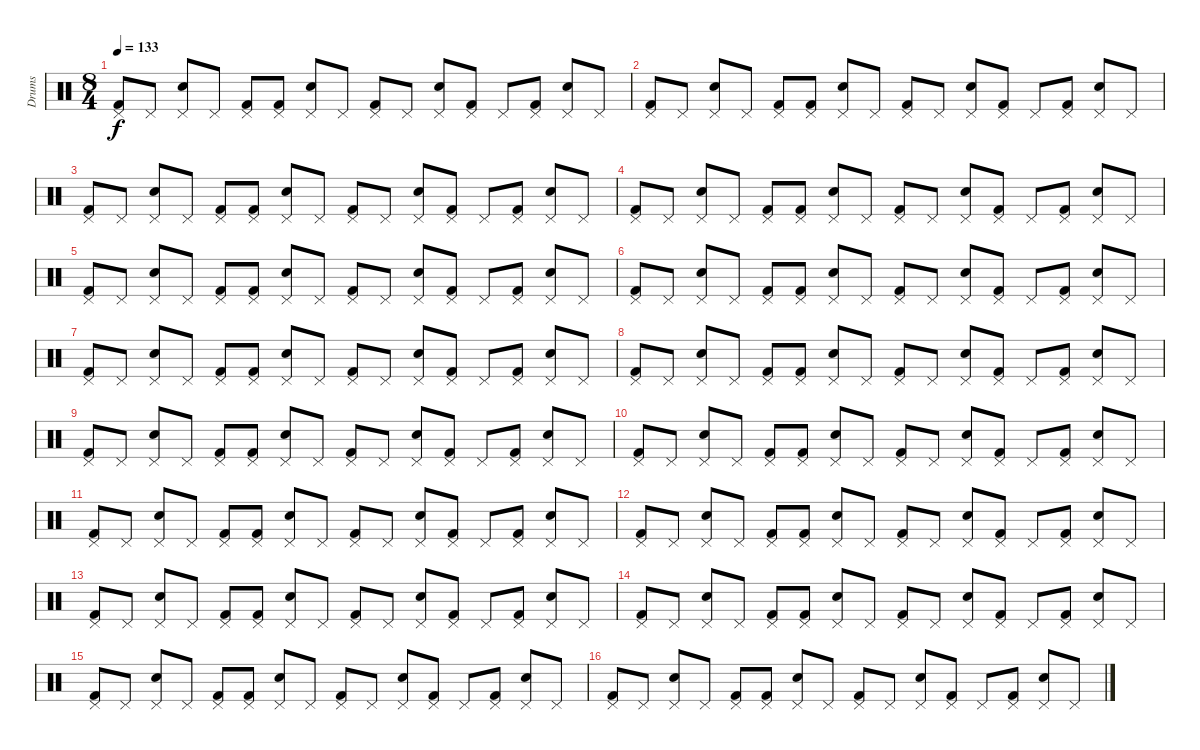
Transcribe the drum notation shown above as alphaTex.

\track ("Drums" "Drums") {instrument percussion}
\staff {score}
\articulation defaults
\ts (8 4)
\tempo 133
\clef neutral
\ks c
("Pedal Hi-Hat (hit)" "Kick (hit) 2").8{dy f} "Pedal Hi-Hat (hit)".8 ("Pedal Hi-Hat (hit)" "Snare (hit) 2").8 "Pedal Hi-Hat (hit)".8 ("Pedal Hi-Hat (hit)" "Kick (hit) 2").8 ("Pedal Hi-Hat (hit)" "Kick (hit) 2").8 ("Pedal Hi-Hat (hit)" "Snare (hit) 2").8 "Pedal Hi-Hat (hit)".8 ("Pedal Hi-Hat (hit)" "Kick (hit) 2").8 "Pedal Hi-Hat (hit)".8 ("Pedal Hi-Hat (hit)" "Snare (hit) 2").8 ("Pedal Hi-Hat (hit)" "Kick (hit) 2").8 "Pedal Hi-Hat (hit)".8 ("Pedal Hi-Hat (hit)" "Kick (hit) 2").8 ("Pedal Hi-Hat (hit)" "Snare (hit) 2").8 "Pedal Hi-Hat (hit)".8 |
("Pedal Hi-Hat (hit)" "Kick (hit) 2").8 "Pedal Hi-Hat (hit)".8 ("Pedal Hi-Hat (hit)" "Snare (hit) 2").8 "Pedal Hi-Hat (hit)".8 ("Pedal Hi-Hat (hit)" "Kick (hit) 2").8 ("Pedal Hi-Hat (hit)" "Kick (hit) 2").8 ("Pedal Hi-Hat (hit)" "Snare (hit) 2").8 "Pedal Hi-Hat (hit)".8 ("Pedal Hi-Hat (hit)" "Kick (hit) 2").8 "Pedal Hi-Hat (hit)".8 ("Pedal Hi-Hat (hit)" "Snare (hit) 2").8 ("Pedal Hi-Hat (hit)" "Kick (hit) 2").8 "Pedal Hi-Hat (hit)".8 ("Pedal Hi-Hat (hit)" "Kick (hit) 2").8 ("Pedal Hi-Hat (hit)" "Snare (hit) 2").8 "Pedal Hi-Hat (hit)".8 |
("Pedal Hi-Hat (hit)" "Kick (hit) 2").8 "Pedal Hi-Hat (hit)".8 ("Pedal Hi-Hat (hit)" "Snare (hit) 2").8 "Pedal Hi-Hat (hit)".8 ("Pedal Hi-Hat (hit)" "Kick (hit) 2").8 ("Pedal Hi-Hat (hit)" "Kick (hit) 2").8 ("Pedal Hi-Hat (hit)" "Snare (hit) 2").8 "Pedal Hi-Hat (hit)".8 ("Pedal Hi-Hat (hit)" "Kick (hit) 2").8 "Pedal Hi-Hat (hit)".8 ("Pedal Hi-Hat (hit)" "Snare (hit) 2").8 ("Pedal Hi-Hat (hit)" "Kick (hit) 2").8 "Pedal Hi-Hat (hit)".8 ("Pedal Hi-Hat (hit)" "Kick (hit) 2").8 ("Pedal Hi-Hat (hit)" "Snare (hit) 2").8 "Pedal Hi-Hat (hit)".8 |
("Pedal Hi-Hat (hit)" "Kick (hit) 2").8 "Pedal Hi-Hat (hit)".8 ("Pedal Hi-Hat (hit)" "Snare (hit) 2").8 "Pedal Hi-Hat (hit)".8 ("Pedal Hi-Hat (hit)" "Kick (hit) 2").8 ("Pedal Hi-Hat (hit)" "Kick (hit) 2").8 ("Pedal Hi-Hat (hit)" "Snare (hit) 2").8 "Pedal Hi-Hat (hit)".8 ("Pedal Hi-Hat (hit)" "Kick (hit) 2").8 "Pedal Hi-Hat (hit)".8 ("Pedal Hi-Hat (hit)" "Snare (hit) 2").8 ("Pedal Hi-Hat (hit)" "Kick (hit) 2").8 "Pedal Hi-Hat (hit)".8 ("Pedal Hi-Hat (hit)" "Kick (hit) 2").8 ("Pedal Hi-Hat (hit)" "Snare (hit) 2").8 "Pedal Hi-Hat (hit)".8 |
("Pedal Hi-Hat (hit)" "Kick (hit) 2").8 "Pedal Hi-Hat (hit)".8 ("Pedal Hi-Hat (hit)" "Snare (hit) 2").8 "Pedal Hi-Hat (hit)".8 ("Pedal Hi-Hat (hit)" "Kick (hit) 2").8 ("Pedal Hi-Hat (hit)" "Kick (hit) 2").8 ("Pedal Hi-Hat (hit)" "Snare (hit) 2").8 "Pedal Hi-Hat (hit)".8 ("Pedal Hi-Hat (hit)" "Kick (hit) 2").8 "Pedal Hi-Hat (hit)".8 ("Pedal Hi-Hat (hit)" "Snare (hit) 2").8 ("Pedal Hi-Hat (hit)" "Kick (hit) 2").8 "Pedal Hi-Hat (hit)".8 ("Pedal Hi-Hat (hit)" "Kick (hit) 2").8 ("Pedal Hi-Hat (hit)" "Snare (hit) 2").8 "Pedal Hi-Hat (hit)".8 |
("Pedal Hi-Hat (hit)" "Kick (hit) 2").8 "Pedal Hi-Hat (hit)".8 ("Pedal Hi-Hat (hit)" "Snare (hit) 2").8 "Pedal Hi-Hat (hit)".8 ("Pedal Hi-Hat (hit)" "Kick (hit) 2").8 ("Pedal Hi-Hat (hit)" "Kick (hit) 2").8 ("Pedal Hi-Hat (hit)" "Snare (hit) 2").8 "Pedal Hi-Hat (hit)".8 ("Pedal Hi-Hat (hit)" "Kick (hit) 2").8 "Pedal Hi-Hat (hit)".8 ("Pedal Hi-Hat (hit)" "Snare (hit) 2").8 ("Pedal Hi-Hat (hit)" "Kick (hit) 2").8 "Pedal Hi-Hat (hit)".8 ("Pedal Hi-Hat (hit)" "Kick (hit) 2").8 ("Pedal Hi-Hat (hit)" "Snare (hit) 2").8 "Pedal Hi-Hat (hit)".8 |
("Pedal Hi-Hat (hit)" "Kick (hit) 2").8 "Pedal Hi-Hat (hit)".8 ("Pedal Hi-Hat (hit)" "Snare (hit) 2").8 "Pedal Hi-Hat (hit)".8 ("Pedal Hi-Hat (hit)" "Kick (hit) 2").8 ("Pedal Hi-Hat (hit)" "Kick (hit) 2").8 ("Pedal Hi-Hat (hit)" "Snare (hit) 2").8 "Pedal Hi-Hat (hit)".8 ("Pedal Hi-Hat (hit)" "Kick (hit) 2").8 "Pedal Hi-Hat (hit)".8 ("Pedal Hi-Hat (hit)" "Snare (hit) 2").8 ("Pedal Hi-Hat (hit)" "Kick (hit) 2").8 "Pedal Hi-Hat (hit)".8 ("Pedal Hi-Hat (hit)" "Kick (hit) 2").8 ("Pedal Hi-Hat (hit)" "Snare (hit) 2").8 "Pedal Hi-Hat (hit)".8 |
("Pedal Hi-Hat (hit)" "Kick (hit) 2").8 "Pedal Hi-Hat (hit)".8 ("Pedal Hi-Hat (hit)" "Snare (hit) 2").8 "Pedal Hi-Hat (hit)".8 ("Pedal Hi-Hat (hit)" "Kick (hit) 2").8 ("Pedal Hi-Hat (hit)" "Kick (hit) 2").8 ("Pedal Hi-Hat (hit)" "Snare (hit) 2").8 "Pedal Hi-Hat (hit)".8 ("Pedal Hi-Hat (hit)" "Kick (hit) 2").8 "Pedal Hi-Hat (hit)".8 ("Pedal Hi-Hat (hit)" "Snare (hit) 2").8 ("Pedal Hi-Hat (hit)" "Kick (hit) 2").8 "Pedal Hi-Hat (hit)".8 ("Pedal Hi-Hat (hit)" "Kick (hit) 2").8 ("Pedal Hi-Hat (hit)" "Snare (hit) 2").8 "Pedal Hi-Hat (hit)".8 |
("Pedal Hi-Hat (hit)" "Kick (hit) 2").8 "Pedal Hi-Hat (hit)".8 ("Pedal Hi-Hat (hit)" "Snare (hit) 2").8 "Pedal Hi-Hat (hit)".8 ("Pedal Hi-Hat (hit)" "Kick (hit) 2").8 ("Pedal Hi-Hat (hit)" "Kick (hit) 2").8 ("Pedal Hi-Hat (hit)" "Snare (hit) 2").8 "Pedal Hi-Hat (hit)".8 ("Pedal Hi-Hat (hit)" "Kick (hit) 2").8 "Pedal Hi-Hat (hit)".8 ("Pedal Hi-Hat (hit)" "Snare (hit) 2").8 ("Pedal Hi-Hat (hit)" "Kick (hit) 2").8 "Pedal Hi-Hat (hit)".8 ("Pedal Hi-Hat (hit)" "Kick (hit) 2").8 ("Pedal Hi-Hat (hit)" "Snare (hit) 2").8 "Pedal Hi-Hat (hit)".8 |
("Pedal Hi-Hat (hit)" "Kick (hit) 2").8 "Pedal Hi-Hat (hit)".8 ("Pedal Hi-Hat (hit)" "Snare (hit) 2").8 "Pedal Hi-Hat (hit)".8 ("Pedal Hi-Hat (hit)" "Kick (hit) 2").8 ("Pedal Hi-Hat (hit)" "Kick (hit) 2").8 ("Pedal Hi-Hat (hit)" "Snare (hit) 2").8 "Pedal Hi-Hat (hit)".8 ("Pedal Hi-Hat (hit)" "Kick (hit) 2").8 "Pedal Hi-Hat (hit)".8 ("Pedal Hi-Hat (hit)" "Snare (hit) 2").8 ("Pedal Hi-Hat (hit)" "Kick (hit) 2").8 "Pedal Hi-Hat (hit)".8 ("Pedal Hi-Hat (hit)" "Kick (hit) 2").8 ("Pedal Hi-Hat (hit)" "Snare (hit) 2").8 "Pedal Hi-Hat (hit)".8 |
("Pedal Hi-Hat (hit)" "Kick (hit) 2").8 "Pedal Hi-Hat (hit)".8 ("Pedal Hi-Hat (hit)" "Snare (hit) 2").8 "Pedal Hi-Hat (hit)".8 ("Pedal Hi-Hat (hit)" "Kick (hit) 2").8 ("Pedal Hi-Hat (hit)" "Kick (hit) 2").8 ("Pedal Hi-Hat (hit)" "Snare (hit) 2").8 "Pedal Hi-Hat (hit)".8 ("Pedal Hi-Hat (hit)" "Kick (hit) 2").8 "Pedal Hi-Hat (hit)".8 ("Pedal Hi-Hat (hit)" "Snare (hit) 2").8 ("Pedal Hi-Hat (hit)" "Kick (hit) 2").8 "Pedal Hi-Hat (hit)".8 ("Pedal Hi-Hat (hit)" "Kick (hit) 2").8 ("Pedal Hi-Hat (hit)" "Snare (hit) 2").8 "Pedal Hi-Hat (hit)".8 |
("Pedal Hi-Hat (hit)" "Kick (hit) 2").8 "Pedal Hi-Hat (hit)".8 ("Pedal Hi-Hat (hit)" "Snare (hit) 2").8 "Pedal Hi-Hat (hit)".8 ("Pedal Hi-Hat (hit)" "Kick (hit) 2").8 ("Pedal Hi-Hat (hit)" "Kick (hit) 2").8 ("Pedal Hi-Hat (hit)" "Snare (hit) 2").8 "Pedal Hi-Hat (hit)".8 ("Pedal Hi-Hat (hit)" "Kick (hit) 2").8 "Pedal Hi-Hat (hit)".8 ("Pedal Hi-Hat (hit)" "Snare (hit) 2").8 ("Pedal Hi-Hat (hit)" "Kick (hit) 2").8 "Pedal Hi-Hat (hit)".8 ("Pedal Hi-Hat (hit)" "Kick (hit) 2").8 ("Pedal Hi-Hat (hit)" "Snare (hit) 2").8 "Pedal Hi-Hat (hit)".8 |
("Pedal Hi-Hat (hit)" "Kick (hit) 2").8 "Pedal Hi-Hat (hit)".8 ("Pedal Hi-Hat (hit)" "Snare (hit) 2").8 "Pedal Hi-Hat (hit)".8 ("Pedal Hi-Hat (hit)" "Kick (hit) 2").8 ("Pedal Hi-Hat (hit)" "Kick (hit) 2").8 ("Pedal Hi-Hat (hit)" "Snare (hit) 2").8 "Pedal Hi-Hat (hit)".8 ("Pedal Hi-Hat (hit)" "Kick (hit) 2").8 "Pedal Hi-Hat (hit)".8 ("Pedal Hi-Hat (hit)" "Snare (hit) 2").8 ("Pedal Hi-Hat (hit)" "Kick (hit) 2").8 "Pedal Hi-Hat (hit)".8 ("Pedal Hi-Hat (hit)" "Kick (hit) 2").8 ("Pedal Hi-Hat (hit)" "Snare (hit) 2").8 "Pedal Hi-Hat (hit)".8 |
("Pedal Hi-Hat (hit)" "Kick (hit) 2").8 "Pedal Hi-Hat (hit)".8 ("Pedal Hi-Hat (hit)" "Snare (hit) 2").8 "Pedal Hi-Hat (hit)".8 ("Pedal Hi-Hat (hit)" "Kick (hit) 2").8 ("Pedal Hi-Hat (hit)" "Kick (hit) 2").8 ("Pedal Hi-Hat (hit)" "Snare (hit) 2").8 "Pedal Hi-Hat (hit)".8 ("Pedal Hi-Hat (hit)" "Kick (hit) 2").8 "Pedal Hi-Hat (hit)".8 ("Pedal Hi-Hat (hit)" "Snare (hit) 2").8 ("Pedal Hi-Hat (hit)" "Kick (hit) 2").8 "Pedal Hi-Hat (hit)".8 ("Pedal Hi-Hat (hit)" "Kick (hit) 2").8 ("Pedal Hi-Hat (hit)" "Snare (hit) 2").8 "Pedal Hi-Hat (hit)".8 |
("Pedal Hi-Hat (hit)" "Kick (hit) 2").8 "Pedal Hi-Hat (hit)".8 ("Pedal Hi-Hat (hit)" "Snare (hit) 2").8 "Pedal Hi-Hat (hit)".8 ("Pedal Hi-Hat (hit)" "Kick (hit) 2").8 ("Pedal Hi-Hat (hit)" "Kick (hit) 2").8 ("Pedal Hi-Hat (hit)" "Snare (hit) 2").8 "Pedal Hi-Hat (hit)".8 ("Pedal Hi-Hat (hit)" "Kick (hit) 2").8 "Pedal Hi-Hat (hit)".8 ("Pedal Hi-Hat (hit)" "Snare (hit) 2").8 ("Pedal Hi-Hat (hit)" "Kick (hit) 2").8 "Pedal Hi-Hat (hit)".8 ("Pedal Hi-Hat (hit)" "Kick (hit) 2").8 ("Pedal Hi-Hat (hit)" "Snare (hit) 2").8 "Pedal Hi-Hat (hit)".8 |
("Pedal Hi-Hat (hit)" "Kick (hit) 2").8 "Pedal Hi-Hat (hit)".8 ("Pedal Hi-Hat (hit)" "Snare (hit) 2").8 "Pedal Hi-Hat (hit)".8 ("Pedal Hi-Hat (hit)" "Kick (hit) 2").8 ("Pedal Hi-Hat (hit)" "Kick (hit) 2").8 ("Pedal Hi-Hat (hit)" "Snare (hit) 2").8 "Pedal Hi-Hat (hit)".8 ("Pedal Hi-Hat (hit)" "Kick (hit) 2").8 "Pedal Hi-Hat (hit)".8 ("Pedal Hi-Hat (hit)" "Snare (hit) 2").8 ("Pedal Hi-Hat (hit)" "Kick (hit) 2").8 "Pedal Hi-Hat (hit)".8 ("Pedal Hi-Hat (hit)" "Kick (hit) 2").8 ("Pedal Hi-Hat (hit)" "Snare (hit) 2").8 "Pedal Hi-Hat (hit)".8
